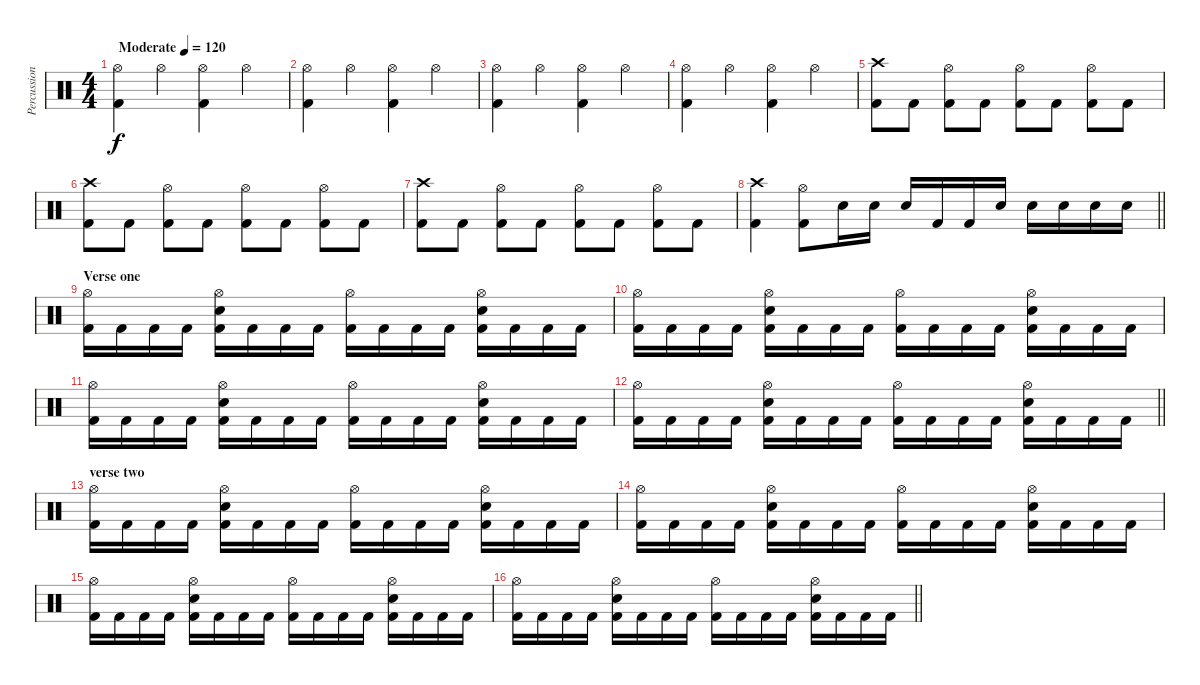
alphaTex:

\track ("Percussion" "Percussion") {instrument percussion}
\staff {score}
\articulation defaults
\ts (4 4)
\tempo (120 "Moderate")
\clef neutral
\ks c
("Hi-Hat (open)" "Kick (hit) 2").4{dy f} "Hi-Hat (open)".4 ("Hi-Hat (open)" "Kick (hit) 2").4 "Hi-Hat (open)".4 |
("Hi-Hat (open)" "Kick (hit) 2").4 "Hi-Hat (open)".4 ("Hi-Hat (open)" "Kick (hit) 2").4 "Hi-Hat (open)".4 |
("Hi-Hat (open)" "Kick (hit) 2").4 "Hi-Hat (open)".4 ("Hi-Hat (open)" "Kick (hit) 2").4 "Hi-Hat (open)".4 |
("Hi-Hat (open)" "Kick (hit) 2").4 "Hi-Hat (open)".4 ("Hi-Hat (open)" "Kick (hit) 2").4 "Hi-Hat (open)".4 |
("Crash high (hit)" "Kick (hit) 2").8 "Kick (hit) 2".8 ("Hi-Hat (open)" "Kick (hit) 2").8 "Kick (hit) 2".8 ("Hi-Hat (open)" "Kick (hit) 2").8 "Kick (hit) 2".8 ("Hi-Hat (open)" "Kick (hit) 2").8 "Kick (hit) 2".8 |
("Crash high (hit)" "Kick (hit) 2").8 "Kick (hit) 2".8 ("Hi-Hat (open)" "Kick (hit) 2").8 "Kick (hit) 2".8 ("Hi-Hat (open)" "Kick (hit) 2").8 "Kick (hit) 2".8 ("Hi-Hat (open)" "Kick (hit) 2").8 "Kick (hit) 2".8 |
("Crash high (hit)" "Kick (hit) 2").8 "Kick (hit) 2".8 ("Hi-Hat (open)" "Kick (hit) 2").8 "Kick (hit) 2".8 ("Hi-Hat (open)" "Kick (hit) 2").8 "Kick (hit) 2".8 ("Hi-Hat (open)" "Kick (hit) 2").8 "Kick (hit) 2".8 |
\barLineRight lightlight
("Crash high (hit)" "Kick (hit) 2").4 ("Hi-Hat (open)" "Kick (hit) 2").8 "Electric Snare (hit)".16 "Electric Snare (hit)".16 "Electric Snare (hit)".16 "Kick (hit) 2".16 "Kick (hit) 2".16 "Electric Snare (hit)".16 "Electric Snare (hit)".16 "Electric Snare (hit)".16 "Electric Snare (hit)".16 "Electric Snare (hit)".16 |
\section ("" "Verse one")
("Kick (hit) 2" "Hi-Hat (open)").16 "Kick (hit) 2".16 "Kick (hit) 2".16 "Kick (hit) 2".16 ("Kick (hit) 2" "Hi-Hat (open)" "Electric Snare (hit)").16 "Kick (hit) 2".16 "Kick (hit) 2".16 "Kick (hit) 2".16 ("Kick (hit) 2" "Hi-Hat (open)").16 "Kick (hit) 2".16 "Kick (hit) 2".16 "Kick (hit) 2".16 ("Kick (hit) 2" "Hi-Hat (open)" "Electric Snare (hit)").16 "Kick (hit) 2".16 "Kick (hit) 2".16 "Kick (hit) 2".16 |
("Kick (hit) 2" "Hi-Hat (open)").16 "Kick (hit) 2".16 "Kick (hit) 2".16 "Kick (hit) 2".16 ("Kick (hit) 2" "Hi-Hat (open)" "Electric Snare (hit)").16 "Kick (hit) 2".16 "Kick (hit) 2".16 "Kick (hit) 2".16 ("Kick (hit) 2" "Hi-Hat (open)").16 "Kick (hit) 2".16 "Kick (hit) 2".16 "Kick (hit) 2".16 ("Kick (hit) 2" "Hi-Hat (open)" "Electric Snare (hit)").16 "Kick (hit) 2".16 "Kick (hit) 2".16 "Kick (hit) 2".16 |
("Kick (hit) 2" "Hi-Hat (open)").16 "Kick (hit) 2".16 "Kick (hit) 2".16 "Kick (hit) 2".16 ("Kick (hit) 2" "Hi-Hat (open)" "Electric Snare (hit)").16 "Kick (hit) 2".16 "Kick (hit) 2".16 "Kick (hit) 2".16 ("Kick (hit) 2" "Hi-Hat (open)").16 "Kick (hit) 2".16 "Kick (hit) 2".16 "Kick (hit) 2".16 ("Kick (hit) 2" "Hi-Hat (open)" "Electric Snare (hit)").16 "Kick (hit) 2".16 "Kick (hit) 2".16 "Kick (hit) 2".16 |
\barLineRight lightlight
("Kick (hit) 2" "Hi-Hat (open)").16 "Kick (hit) 2".16 "Kick (hit) 2".16 "Kick (hit) 2".16 ("Kick (hit) 2" "Hi-Hat (open)" "Electric Snare (hit)").16 "Kick (hit) 2".16 "Kick (hit) 2".16 "Kick (hit) 2".16 ("Kick (hit) 2" "Hi-Hat (open)").16 "Kick (hit) 2".16 "Kick (hit) 2".16 "Kick (hit) 2".16 ("Kick (hit) 2" "Hi-Hat (open)" "Electric Snare (hit)").16 "Kick (hit) 2".16 "Kick (hit) 2".16 "Kick (hit) 2".16 |
\section ("" "verse two")
("Kick (hit) 2" "Hi-Hat (open)").16 "Kick (hit) 2".16 "Kick (hit) 2".16 "Kick (hit) 2".16 ("Kick (hit) 2" "Hi-Hat (open)" "Electric Snare (hit)").16 "Kick (hit) 2".16 "Kick (hit) 2".16 "Kick (hit) 2".16 ("Kick (hit) 2" "Hi-Hat (open)").16 "Kick (hit) 2".16 "Kick (hit) 2".16 "Kick (hit) 2".16 ("Kick (hit) 2" "Hi-Hat (open)" "Electric Snare (hit)").16 "Kick (hit) 2".16 "Kick (hit) 2".16 "Kick (hit) 2".16 |
("Kick (hit) 2" "Hi-Hat (open)").16 "Kick (hit) 2".16 "Kick (hit) 2".16 "Kick (hit) 2".16 ("Kick (hit) 2" "Hi-Hat (open)" "Electric Snare (hit)").16 "Kick (hit) 2".16 "Kick (hit) 2".16 "Kick (hit) 2".16 ("Kick (hit) 2" "Hi-Hat (open)").16 "Kick (hit) 2".16 "Kick (hit) 2".16 "Kick (hit) 2".16 ("Kick (hit) 2" "Hi-Hat (open)" "Electric Snare (hit)").16 "Kick (hit) 2".16 "Kick (hit) 2".16 "Kick (hit) 2".16 |
("Kick (hit) 2" "Hi-Hat (open)").16 "Kick (hit) 2".16 "Kick (hit) 2".16 "Kick (hit) 2".16 ("Kick (hit) 2" "Hi-Hat (open)" "Electric Snare (hit)").16 "Kick (hit) 2".16 "Kick (hit) 2".16 "Kick (hit) 2".16 ("Kick (hit) 2" "Hi-Hat (open)").16 "Kick (hit) 2".16 "Kick (hit) 2".16 "Kick (hit) 2".16 ("Kick (hit) 2" "Hi-Hat (open)" "Electric Snare (hit)").16 "Kick (hit) 2".16 "Kick (hit) 2".16 "Kick (hit) 2".16 |
\barLineRight lightlight
("Kick (hit) 2" "Hi-Hat (open)").16 "Kick (hit) 2".16 "Kick (hit) 2".16 "Kick (hit) 2".16 ("Kick (hit) 2" "Hi-Hat (open)" "Electric Snare (hit)").16 "Kick (hit) 2".16 "Kick (hit) 2".16 "Kick (hit) 2".16 ("Kick (hit) 2" "Hi-Hat (open)").16 "Kick (hit) 2".16 "Kick (hit) 2".16 "Kick (hit) 2".16 ("Kick (hit) 2" "Hi-Hat (open)" "Electric Snare (hit)").16 "Kick (hit) 2".16 "Kick (hit) 2".16 "Kick (hit) 2".16
